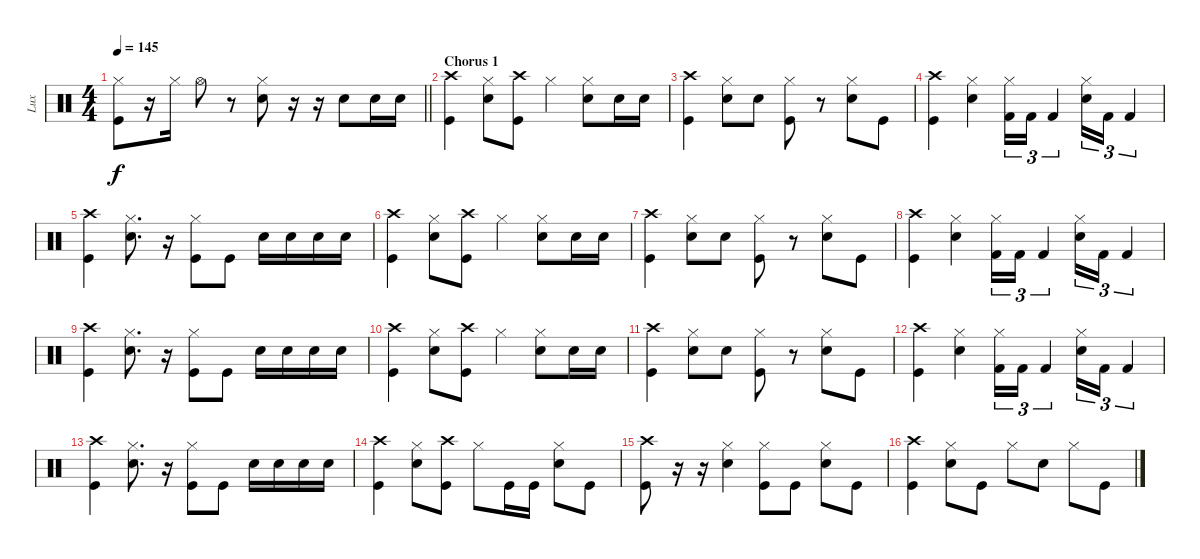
\track ("Lux" "Lux") {instrument percussion}
\staff {score}
\articulation defaults
\ts (4 4)
\tempo 145
\clef neutral
\barLineRight lightlight
\ks c
("Hi-Hat (closed)" "Kick (hit)").8{dy f} r.16 "Hi-Hat (closed)".16 "Hi-Hat (open)".8 r.8 ("Hi-Hat (closed)" "Snare (hit) 2").8 r.16 r.16 "Snare (hit) 2".8 "Snare (hit) 2".16 "Snare (hit) 2".16 |
\section ("" "Chorus 1")
("Crash high (hit)" "Kick (hit)").4 ("Hi-Hat (closed)" "Snare (hit) 2").8 ("Crash high (hit)" "Kick (hit)").8 "Hi-Hat (closed)".4 ("Hi-Hat (closed)" "Snare (hit) 2").8 "Snare (hit) 2".16 "Snare (hit) 2".16 |
("Crash high (hit)" "Kick (hit)").4 ("Hi-Hat (closed)" "Snare (hit) 2").8 "Snare (hit) 2".8 ("Hi-Hat (closed)" "Kick (hit)").8 r.8 ("Hi-Hat (closed)" "Snare (hit) 2").8 "Kick (hit)".8 |
("Crash high (hit)" "Kick (hit)").4 ("Hi-Hat (closed)" "Snare (hit) 2").4 ("Hi-Hat (closed)" "Kick (hit) 2").16{tu (3 2)} "Kick (hit) 2".16{tu (3 2)} "Kick (hit) 2".4{tu (3 2)} ("Hi-Hat (closed)" "Snare (hit) 2").16{tu (3 2)} "Kick (hit) 2".16{tu (3 2)} "Kick (hit) 2".4{tu (3 2)} |
("Crash high (hit)" "Kick (hit)").4 ("Hi-Hat (closed)" "Snare (hit) 2").8{d} r.16 ("Hi-Hat (closed)" "Kick (hit)").8 "Kick (hit)".8 "Snare (hit) 2".16 "Snare (hit) 2".16 "Snare (hit) 2".16 "Snare (hit) 2".16 |
("Crash high (hit)" "Kick (hit)").4 ("Hi-Hat (closed)" "Snare (hit) 2").8 ("Crash high (hit)" "Kick (hit)").8 "Hi-Hat (closed)".4 ("Hi-Hat (closed)" "Snare (hit) 2").8 "Snare (hit) 2".16 "Snare (hit) 2".16 |
("Crash high (hit)" "Kick (hit)").4 ("Hi-Hat (closed)" "Snare (hit) 2").8 "Snare (hit) 2".8 ("Hi-Hat (closed)" "Kick (hit)").8 r.8 ("Hi-Hat (closed)" "Snare (hit) 2").8 "Kick (hit)".8 |
("Crash high (hit)" "Kick (hit)").4 ("Hi-Hat (closed)" "Snare (hit) 2").4 ("Hi-Hat (closed)" "Kick (hit) 2").16{tu (3 2)} "Kick (hit) 2".16{tu (3 2)} "Kick (hit) 2".4{tu (3 2)} ("Hi-Hat (closed)" "Snare (hit) 2").16{tu (3 2)} "Kick (hit) 2".16{tu (3 2)} "Kick (hit) 2".4{tu (3 2)} |
("Crash high (hit)" "Kick (hit)").4 ("Hi-Hat (closed)" "Snare (hit) 2").8{d} r.16 ("Hi-Hat (closed)" "Kick (hit)").8 "Kick (hit)".8 "Snare (hit) 2".16 "Snare (hit) 2".16 "Snare (hit) 2".16 "Snare (hit) 2".16 |
("Crash high (hit)" "Kick (hit)").4 ("Hi-Hat (closed)" "Snare (hit) 2").8 ("Crash high (hit)" "Kick (hit)").8 "Hi-Hat (closed)".4 ("Hi-Hat (closed)" "Snare (hit) 2").8 "Snare (hit) 2".16 "Snare (hit) 2".16 |
("Crash high (hit)" "Kick (hit)").4 ("Hi-Hat (closed)" "Snare (hit) 2").8 "Snare (hit) 2".8 ("Hi-Hat (closed)" "Kick (hit)").8 r.8 ("Hi-Hat (closed)" "Snare (hit) 2").8 "Kick (hit)".8 |
("Crash high (hit)" "Kick (hit)").4 ("Hi-Hat (closed)" "Snare (hit) 2").4 ("Hi-Hat (closed)" "Kick (hit) 2").16{tu (3 2)} "Kick (hit) 2".16{tu (3 2)} "Kick (hit) 2".4{tu (3 2)} ("Hi-Hat (closed)" "Snare (hit) 2").16{tu (3 2)} "Kick (hit) 2".16{tu (3 2)} "Kick (hit) 2".4{tu (3 2)} |
("Crash high (hit)" "Kick (hit)").4 ("Hi-Hat (closed)" "Snare (hit) 2").8{d} r.16 ("Hi-Hat (closed)" "Kick (hit)").8 "Kick (hit)".8 "Snare (hit) 2".16 "Snare (hit) 2".16 "Snare (hit) 2".16 "Snare (hit) 2".16 |
("Crash high (hit)" "Kick (hit)").4 ("Hi-Hat (closed)" "Snare (hit) 2").8 ("Crash high (hit)" "Kick (hit)").8 "Hi-Hat (closed)".8 "Kick (hit)".16 "Kick (hit)".16 ("Hi-Hat (closed)" "Snare (hit) 2").8 "Kick (hit)".8 |
("Crash high (hit)" "Kick (hit)").8 r.16 r.16 ("Hi-Hat (closed)" "Snare (hit) 2").4 ("Hi-Hat (closed)" "Kick (hit)").8 "Kick (hit)".8 ("Hi-Hat (closed)" "Snare (hit) 2").8 "Kick (hit)".8 |
("Crash high (hit)" "Kick (hit)").4 ("Hi-Hat (closed)" "Snare (hit) 2").8 "Kick (hit)".8 "Hi-Hat (closed)".8 "Snare (hit) 2".8 "Hi-Hat (closed)".8 "Kick (hit)".8
